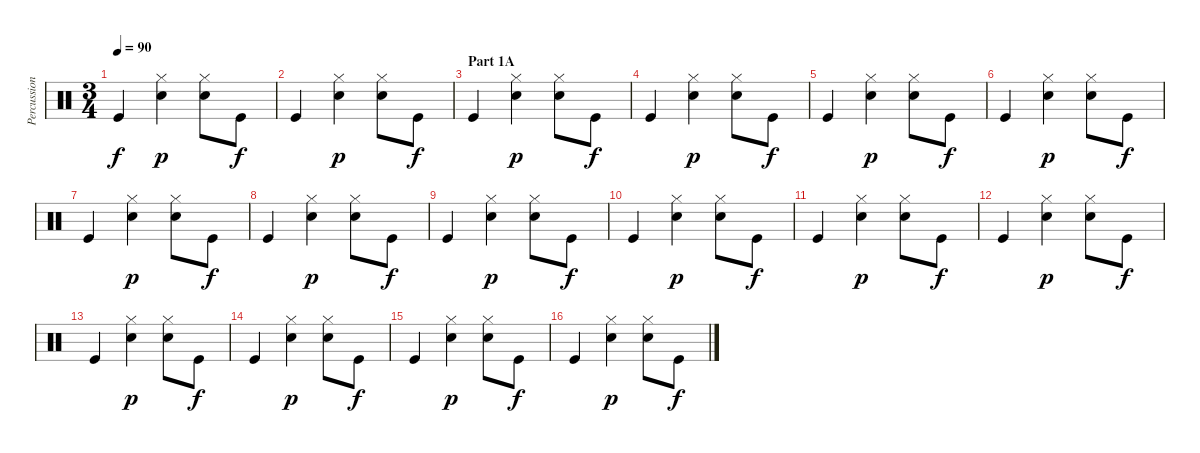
\track ("Percussion" "Percussion") {instrument percussion}
\staff {score}
\articulation defaults
\ts (3 4)
\tempo 90
\clef neutral
\ks c "Kick (hit)".4{dy f}
("Hi-Hat (closed)" "Electric Snare (hit)").4{dy p} ("Hi-Hat (closed)" "Electric Snare (hit)").8 "Kick (hit)".8{dy f} |
"Kick (hit)".4 ("Hi-Hat (closed)" "Electric Snare (hit)").4{dy p} ("Hi-Hat (closed)" "Electric Snare (hit)").8 "Kick (hit)".8{dy f} |
\section ("" "Part 1A")
"Kick (hit)".4 ("Hi-Hat (closed)" "Electric Snare (hit)").4{dy p} ("Hi-Hat (closed)" "Electric Snare (hit)").8 "Kick (hit)".8{dy f} |
"Kick (hit)".4 ("Hi-Hat (closed)" "Electric Snare (hit)").4{dy p} ("Hi-Hat (closed)" "Electric Snare (hit)").8 "Kick (hit)".8{dy f} |
"Kick (hit)".4 ("Hi-Hat (closed)" "Electric Snare (hit)").4{dy p} ("Hi-Hat (closed)" "Electric Snare (hit)").8 "Kick (hit)".8{dy f} |
"Kick (hit)".4 ("Hi-Hat (closed)" "Electric Snare (hit)").4{dy p} ("Hi-Hat (closed)" "Electric Snare (hit)").8 "Kick (hit)".8{dy f} |
"Kick (hit)".4 ("Hi-Hat (closed)" "Electric Snare (hit)").4{dy p} ("Hi-Hat (closed)" "Electric Snare (hit)").8 "Kick (hit)".8{dy f} |
"Kick (hit)".4 ("Hi-Hat (closed)" "Electric Snare (hit)").4{dy p} ("Hi-Hat (closed)" "Electric Snare (hit)").8 "Kick (hit)".8{dy f} |
"Kick (hit)".4 ("Hi-Hat (closed)" "Electric Snare (hit)").4{dy p} ("Hi-Hat (closed)" "Electric Snare (hit)").8 "Kick (hit)".8{dy f} |
"Kick (hit)".4 ("Hi-Hat (closed)" "Electric Snare (hit)").4{dy p} ("Hi-Hat (closed)" "Electric Snare (hit)").8 "Kick (hit)".8{dy f} |
"Kick (hit)".4 ("Hi-Hat (closed)" "Electric Snare (hit)").4{dy p} ("Hi-Hat (closed)" "Electric Snare (hit)").8 "Kick (hit)".8{dy f} |
"Kick (hit)".4 ("Hi-Hat (closed)" "Electric Snare (hit)").4{dy p} ("Hi-Hat (closed)" "Electric Snare (hit)").8 "Kick (hit)".8{dy f} |
"Kick (hit)".4 ("Hi-Hat (closed)" "Electric Snare (hit)").4{dy p} ("Hi-Hat (closed)" "Electric Snare (hit)").8 "Kick (hit)".8{dy f} |
"Kick (hit)".4 ("Hi-Hat (closed)" "Electric Snare (hit)").4{dy p} ("Hi-Hat (closed)" "Electric Snare (hit)").8 "Kick (hit)".8{dy f} |
"Kick (hit)".4 ("Hi-Hat (closed)" "Electric Snare (hit)").4{dy p} ("Hi-Hat (closed)" "Electric Snare (hit)").8 "Kick (hit)".8{dy f} |
"Kick (hit)".4 ("Hi-Hat (closed)" "Electric Snare (hit)").4{dy p} ("Hi-Hat (closed)" "Electric Snare (hit)").8 "Kick (hit)".8{dy f}
